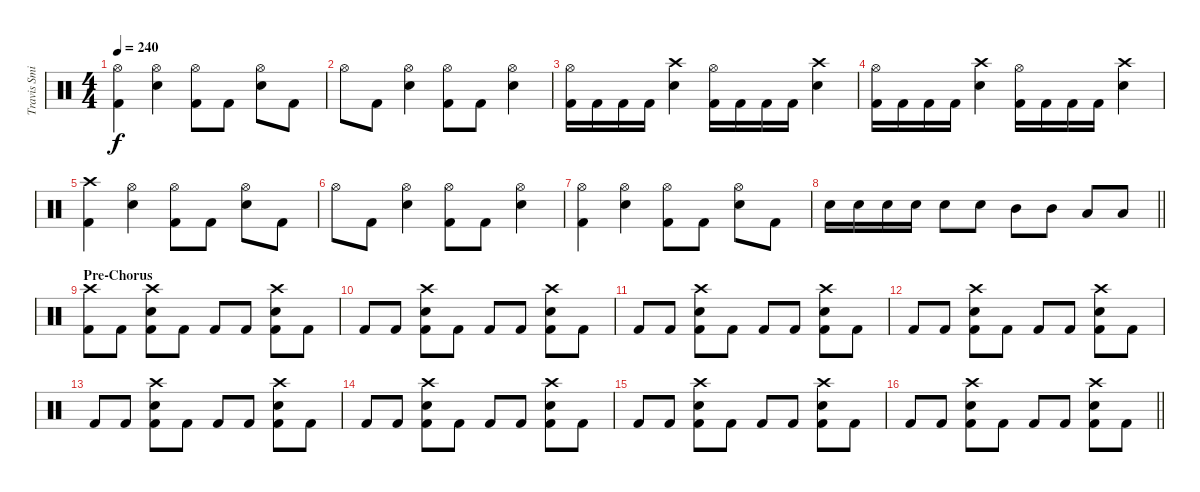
\track ("Travis Smith" "Travis Smi") {instrument percussion}
\staff {score}
\articulation defaults
\ts (4 4)
\tempo 240
\clef neutral
\ks c
("Kick (hit) 2" "Hi-Hat (open)").4{dy f} ("Snare (hit) 2" "Hi-Hat (open)").4 ("Kick (hit) 2" "Hi-Hat (open)").8 "Kick (hit) 2".8 ("Snare (hit) 2" "Hi-Hat (open)").8 "Kick (hit) 2".8 |
"Hi-Hat (open)".8 "Kick (hit) 2".8 ("Snare (hit) 2" "Hi-Hat (open)").4 ("Kick (hit) 2" "Hi-Hat (open)").8 "Kick (hit) 2".8 ("Snare (hit) 2" "Hi-Hat (open)").4 |
("Kick (hit) 2" "Hi-Hat (open)").16 "Kick (hit) 2".16 "Kick (hit) 2".16 "Kick (hit) 2".16 ("Snare (hit) 2" "Crash high (hit)").4 ("Kick (hit) 2" "Hi-Hat (open)").16 "Kick (hit) 2".16 "Kick (hit) 2".16 "Kick (hit) 2".16 ("Snare (hit) 2" "Crash high (hit)").4 |
("Kick (hit) 2" "Hi-Hat (open)").16 "Kick (hit) 2".16 "Kick (hit) 2".16 "Kick (hit) 2".16 ("Snare (hit) 2" "Crash high (hit)").4 ("Kick (hit) 2" "Hi-Hat (open)").16 "Kick (hit) 2".16 "Kick (hit) 2".16 "Kick (hit) 2".16 ("Snare (hit) 2" "Crash high (hit)").4 |
("Kick (hit) 2" "Crash high (hit)").4 ("Snare (hit) 2" "Hi-Hat (open)").4 ("Kick (hit) 2" "Hi-Hat (open)").8 "Kick (hit) 2".8 ("Snare (hit) 2" "Hi-Hat (open)").8 "Kick (hit) 2".8 |
"Hi-Hat (open)".8 "Kick (hit) 2".8 ("Snare (hit) 2" "Hi-Hat (open)").4 ("Kick (hit) 2" "Hi-Hat (open)").8 "Kick (hit) 2".8 ("Snare (hit) 2" "Hi-Hat (open)").4 |
("Kick (hit) 2" "Hi-Hat (open)").4 ("Snare (hit) 2" "Hi-Hat (open)").4 ("Kick (hit) 2" "Hi-Hat (open)").8 "Kick (hit) 2".8 ("Snare (hit) 2" "Hi-Hat (open)").8 "Kick (hit) 2".8 |
\barLineRight lightlight "Snare (hit) 2".16 "Snare (hit) 2".16 "Snare (hit) 2".16 "Snare (hit) 2".16 "Snare (hit) 2".8 "Snare (hit) 2".8 "Mid Tom (hit)".8 "Mid Tom (hit)".8 "Low Tom (hit)".8 "Low Tom (hit)".8
|
\section ("" "Pre-Chorus")
("Kick (hit) 2" "Crash high (hit)").8 "Kick (hit) 2".8 ("Kick (hit) 2" "Snare (hit) 2" "Crash high (hit)").8 "Kick (hit) 2".8 "Kick (hit) 2".8 "Kick (hit) 2".8 ("Kick (hit) 2" "Snare (hit) 2" "Crash high (hit)").8 "Kick (hit) 2".8 |
"Kick (hit) 2".8 "Kick (hit) 2".8 ("Kick (hit) 2" "Snare (hit) 2" "Crash high (hit)").8 "Kick (hit) 2".8 "Kick (hit) 2".8 "Kick (hit) 2".8 ("Kick (hit) 2" "Snare (hit) 2" "Crash high (hit)").8 "Kick (hit) 2".8 |
"Kick (hit) 2".8 "Kick (hit) 2".8 ("Kick (hit) 2" "Snare (hit) 2" "Crash high (hit)").8 "Kick (hit) 2".8 "Kick (hit) 2".8 "Kick (hit) 2".8 ("Kick (hit) 2" "Snare (hit) 2" "Crash high (hit)").8 "Kick (hit) 2".8 |
"Kick (hit) 2".8 "Kick (hit) 2".8 ("Kick (hit) 2" "Snare (hit) 2" "Crash high (hit)").8 "Kick (hit) 2".8 "Kick (hit) 2".8 "Kick (hit) 2".8 ("Kick (hit) 2" "Snare (hit) 2" "Crash high (hit)").8 "Kick (hit) 2".8 |
"Kick (hit) 2".8 "Kick (hit) 2".8 ("Kick (hit) 2" "Snare (hit) 2" "Crash high (hit)").8 "Kick (hit) 2".8 "Kick (hit) 2".8 "Kick (hit) 2".8 ("Kick (hit) 2" "Snare (hit) 2" "Crash high (hit)").8 "Kick (hit) 2".8 |
"Kick (hit) 2".8 "Kick (hit) 2".8 ("Kick (hit) 2" "Snare (hit) 2" "Crash high (hit)").8 "Kick (hit) 2".8 "Kick (hit) 2".8 "Kick (hit) 2".8 ("Kick (hit) 2" "Snare (hit) 2" "Crash high (hit)").8 "Kick (hit) 2".8 |
"Kick (hit) 2".8 "Kick (hit) 2".8 ("Kick (hit) 2" "Snare (hit) 2" "Crash high (hit)").8 "Kick (hit) 2".8 "Kick (hit) 2".8 "Kick (hit) 2".8 ("Kick (hit) 2" "Snare (hit) 2" "Crash high (hit)").8 "Kick (hit) 2".8 |
\barLineRight lightlight "Kick (hit) 2".8 "Kick (hit) 2".8
("Kick (hit) 2" "Snare (hit) 2" "Crash high (hit)").8 "Kick (hit) 2".8 "Kick (hit) 2".8 "Kick (hit) 2".8 ("Kick (hit) 2" "Snare (hit) 2" "Crash high (hit)").8 "Kick (hit) 2".8
